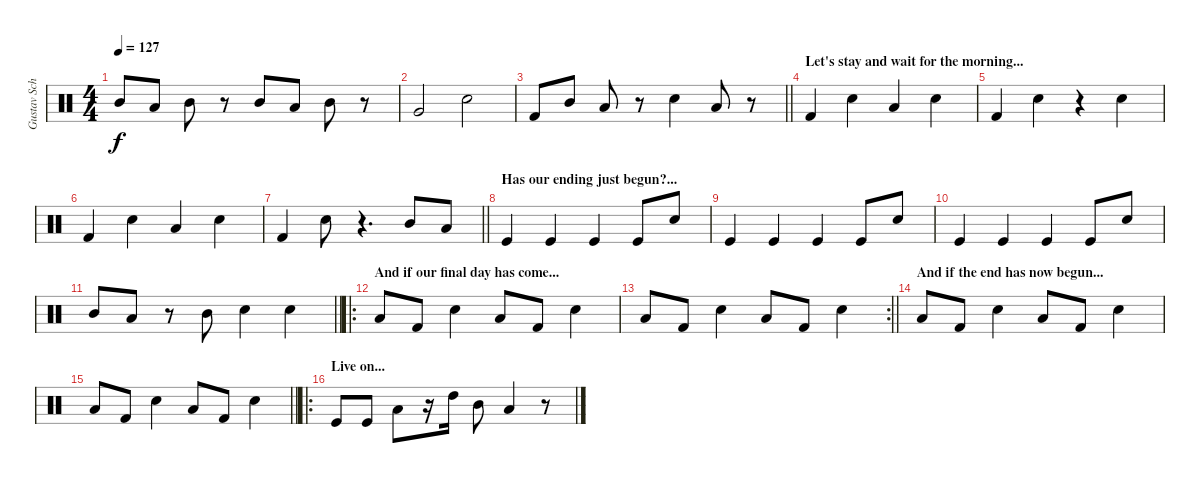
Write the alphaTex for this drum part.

\track ("Gustav Schäfer" "Gustav Sch") {instrument percussion}
\staff {score}
\articulation defaults
\ts (4 4)
\tempo 127
\clef neutral
\ks c "Mid Tom (hit)".8{dy f} "Low Tom (hit)".8 "Mid Tom (hit)".8
r.8 "Mid Tom (hit)".8 "Low Tom (hit)".8 "Mid Tom (hit)".8 r.8 |
"Very Low Tom (hit)".2 "Electric Snare (hit)".2 |
\barLineRight lightlight "Kick (hit) 2".8 "Mid Tom (hit)".8 "Low Tom (hit)".8
r.8 "Electric Snare (hit)".4 "Low Tom (hit)".8 r.8 |
\section ("" "Let's stay and wait for the morning...")
"Kick (hit) 2".4 "Electric Snare (hit)".4 "Low Tom (hit)".4 "Electric Snare (hit)".4 |
"Kick (hit) 2".4 "Electric Snare (hit)".4 r.4 "Electric Snare (hit)".4 |
"Kick (hit) 2".4 "Electric Snare (hit)".4 "Low Tom (hit)".4 "Electric Snare (hit)".4 |
\barLineRight lightlight "Kick (hit) 2".4 "Electric Snare (hit)".8
r.4{d} "Mid Tom (hit)".8 "Low Tom (hit)".8 |
\section ("" "Has our ending just begun?...")
"Kick (hit)".4 "Kick (hit)".4 "Kick (hit)".4 "Kick (hit)".8 "Electric Snare (hit)".8 |
"Kick (hit)".4 "Kick (hit)".4 "Kick (hit)".4 "Kick (hit)".8 "Electric Snare (hit)".8 |
"Kick (hit)".4 "Kick (hit)".4 "Kick (hit)".4 "Kick (hit)".8 "Electric Snare (hit)".8 |
\barLineRight lightlight "Mid Tom (hit)".8 "Low Tom (hit)".8
r.8 "Mid Tom (hit)".8 "Electric Snare (hit)".4 "Electric Snare (hit)".4 |
\ro
\section ("" "And if our final day has come...")
"Low Tom (hit)".8 "Kick (hit) 2".8 "Electric Snare (hit)".4 "Low Tom (hit)".8 "Kick (hit) 2".8 "Electric Snare (hit)".4 |
\rc 2
\barLineRight lightlight "Low Tom (hit)".8 "Kick (hit) 2".8 "Electric Snare (hit)".4 "Low Tom (hit)".8 "Kick (hit) 2".8 "Electric Snare (hit)".4
|
\section ("" "And if the end has now begun...")
"Low Tom (hit)".8 "Kick (hit) 2".8 "Electric Snare (hit)".4 "Low Tom (hit)".8 "Kick (hit) 2".8 "Electric Snare (hit)".4 |
\barLineRight lightlight "Low Tom (hit)".8 "Kick (hit) 2".8 "Electric Snare (hit)".4 "Low Tom (hit)".8 "Kick (hit) 2".8 "Electric Snare (hit)".4
|
\ro
\section ("" "Live on...")
"Kick (hit)".8 "Kick (hit)".8 "Low Tom (hit)".8 r.16 "High Tom (hit)".16 "Mid Tom (hit)".8 "Low Tom (hit)".4 r.8
